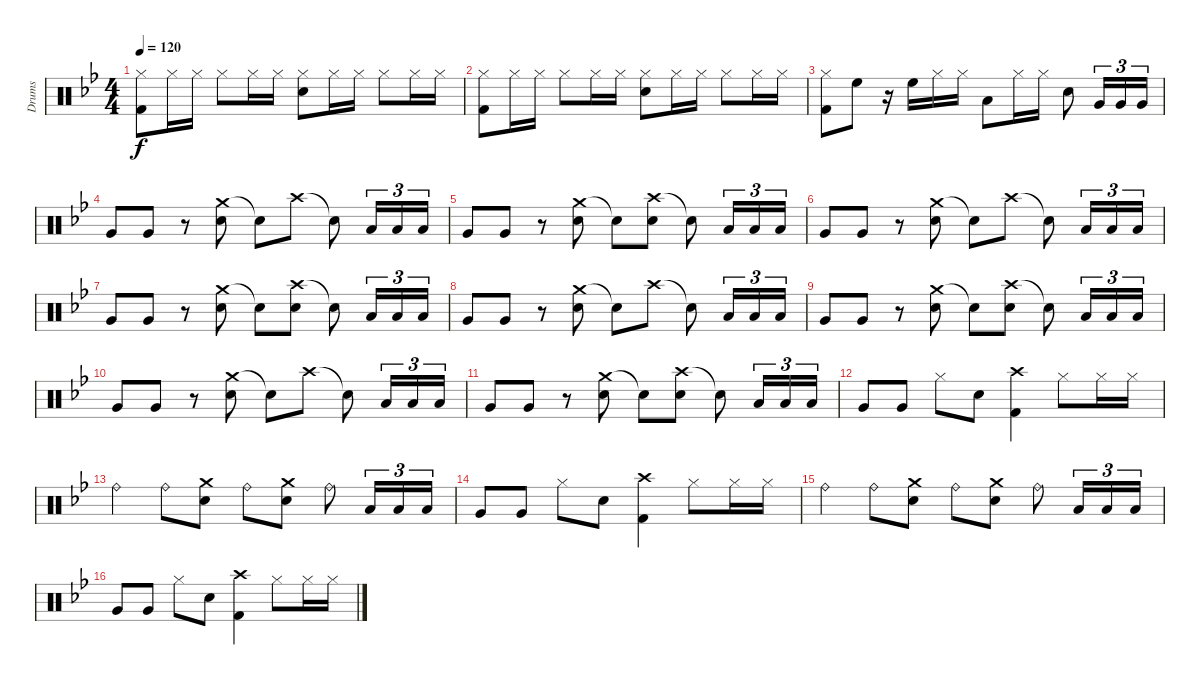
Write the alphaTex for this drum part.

\track ("Drums" "Drums") {instrument percussion}
\staff {score}
\articulation defaults
\ts (4 4)
\tempo 120
\clef neutral
\ks bb
("Hi-Hat (closed)" "Kick (hit) 2").8{dy f} "Hi-Hat (closed)".16 "Hi-Hat (closed)".16 "Hi-Hat (closed)".8 "Hi-Hat (closed)".16 "Hi-Hat (closed)".16 ("Hi-Hat (closed)" "Electric Snare (hit)").8 "Hi-Hat (closed)".16 "Hi-Hat (closed)".16 "Hi-Hat (closed)".8 "Hi-Hat (closed)".16 "Hi-Hat (closed)".16 |
("Hi-Hat (closed)" "Kick (hit) 2").8 "Hi-Hat (closed)".16 "Hi-Hat (closed)".16 "Hi-Hat (closed)".8 "Hi-Hat (closed)".16 "Hi-Hat (closed)".16 ("Hi-Hat (closed)" "Electric Snare (hit)").8 "Hi-Hat (closed)".16 "Hi-Hat (closed)".16 "Hi-Hat (closed)".8 "Hi-Hat (closed)".16 "Hi-Hat (closed)".16 |
("Hi-Hat (closed)" "Kick (hit) 2").8 "High Floor Tom (hit)".8 r.16 "High Floor Tom (hit)".16 "Hi-Hat (closed)".16 "Hi-Hat (closed)".16 "Low Tom (hit)".8 "Hi-Hat (closed)".16 "Hi-Hat (closed)".16 "Electric Snare (hit)".8 "Very Low Tom (hit)".16{tu (3 2)} "Very Low Tom (hit)".16{tu (3 2)} "Very Low Tom (hit)".16{tu (3 2)} |
"Very Low Tom (hit)".8 "Very Low Tom (hit)".8 r.8 ("Crash medium (hit)" "Electric Snare (hit)").8 "Snare (hit)"{t}.8 "Crash high (hit)".8 "Snare (hit)"{t}.8 "Low Floor Tom (hit)".16{tu (3 2)} "Low Floor Tom (hit)".16{tu (3 2)} "Low Floor Tom (hit)".16{tu (3 2)} |
"Very Low Tom (hit)".8 "Very Low Tom (hit)".8 r.8 ("Crash medium (hit)" "Electric Snare (hit)").8 "Snare (hit)"{t}.8 ("Crash high (hit)" "Electric Snare (hit)").8 "Snare (hit)"{t}.8 "Low Floor Tom (hit)".16{tu (3 2)} "Low Floor Tom (hit)".16{tu (3 2)} "Low Floor Tom (hit)".16{tu (3 2)} |
"Very Low Tom (hit)".8 "Very Low Tom (hit)".8 r.8 ("Crash medium (hit)" "Electric Snare (hit)").8 "Snare (hit)"{t}.8 "Crash high (hit)".8 "Snare (hit)"{t}.8 "Low Floor Tom (hit)".16{tu (3 2)} "Low Floor Tom (hit)".16{tu (3 2)} "Low Floor Tom (hit)".16{tu (3 2)} |
"Very Low Tom (hit)".8 "Very Low Tom (hit)".8 r.8 ("Crash medium (hit)" "Electric Snare (hit)").8 "Snare (hit)"{t}.8 ("Crash high (hit)" "Electric Snare (hit)").8 "Snare (hit)"{t}.8 "Low Floor Tom (hit)".16{tu (3 2)} "Low Floor Tom (hit)".16{tu (3 2)} "Low Floor Tom (hit)".16{tu (3 2)} |
"Very Low Tom (hit)".8 "Very Low Tom (hit)".8 r.8 ("Crash medium (hit)" "Electric Snare (hit)").8 "Snare (hit)"{t}.8 "Crash high (hit)".8 "Snare (hit)"{t}.8 "Low Floor Tom (hit)".16{tu (3 2)} "Low Floor Tom (hit)".16{tu (3 2)} "Low Floor Tom (hit)".16{tu (3 2)} |
"Very Low Tom (hit)".8 "Very Low Tom (hit)".8 r.8 ("Crash medium (hit)" "Electric Snare (hit)").8 "Snare (hit)"{t}.8 ("Crash high (hit)" "Electric Snare (hit)").8 "Snare (hit)"{t}.8 "Low Floor Tom (hit)".16{tu (3 2)} "Low Floor Tom (hit)".16{tu (3 2)} "Low Floor Tom (hit)".16{tu (3 2)} |
"Very Low Tom (hit)".8 "Very Low Tom (hit)".8 r.8 ("Crash medium (hit)" "Electric Snare (hit)").8 "Snare (hit)"{t}.8 "Crash high (hit)".8 "Snare (hit)"{t}.8 "Low Floor Tom (hit)".16{tu (3 2)} "Low Floor Tom (hit)".16{tu (3 2)} "Low Floor Tom (hit)".16{tu (3 2)} |
"Very Low Tom (hit)".8 "Very Low Tom (hit)".8 r.8 ("Crash medium (hit)" "Electric Snare (hit)").8 "Snare (hit)"{t}.8 ("Crash high (hit)" "Electric Snare (hit)").8 "Snare (hit)"{t}.8 "Low Floor Tom (hit)".16{tu (3 2)} "Low Floor Tom (hit)".16{tu (3 2)} "Low Floor Tom (hit)".16{tu (3 2)} |
"Very Low Tom (hit)".8 "Very Low Tom (hit)".8 "Hi-Hat (closed)".8 "Electric Snare (hit)".8 ("Crash high (hit)" "Kick (hit) 2").4 "Hi-Hat (closed)".8 "Hi-Hat (closed)".16 "Hi-Hat (closed)".16 |
"Ride (bell)".4 "Ride (bell)".8 ("Crash medium (hit)" "Electric Snare (hit)").8 "Ride (bell)".8 ("Crash medium (hit)" "Electric Snare (hit)").8 "Ride (bell)".8 "Low Floor Tom (hit)".16{tu (3 2)} "Low Floor Tom (hit)".16{tu (3 2)} "Low Floor Tom (hit)".16{tu (3 2)} |
"Very Low Tom (hit)".8 "Very Low Tom (hit)".8 "Hi-Hat (closed)".8 "Electric Snare (hit)".8 ("Crash high (hit)" "Kick (hit) 2").4 "Hi-Hat (closed)".8 "Hi-Hat (closed)".16 "Hi-Hat (closed)".16 |
"Ride (bell)".4 "Ride (bell)".8 ("Crash medium (hit)" "Electric Snare (hit)").8 "Ride (bell)".8 ("Crash medium (hit)" "Electric Snare (hit)").8 "Ride (bell)".8 "Low Floor Tom (hit)".16{tu (3 2)} "Low Floor Tom (hit)".16{tu (3 2)} "Low Floor Tom (hit)".16{tu (3 2)} |
"Very Low Tom (hit)".8 "Very Low Tom (hit)".8 "Hi-Hat (closed)".8 "Electric Snare (hit)".8 ("Crash high (hit)" "Kick (hit) 2").4 "Hi-Hat (closed)".8 "Hi-Hat (closed)".16 "Hi-Hat (closed)".16
